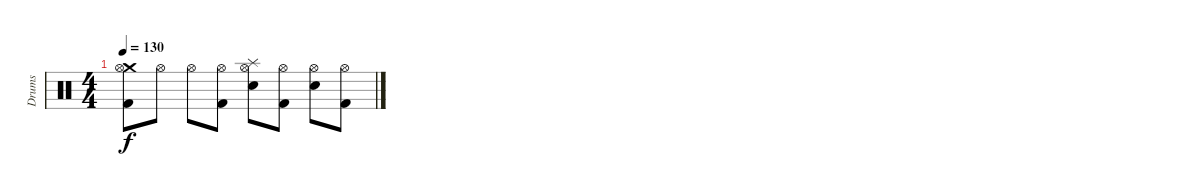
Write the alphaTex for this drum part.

\track ("Drums" "Drums") {instrument percussion}
\staff {score}
\articulation defaults
\ts (4 4)
\tempo 130
\clef neutral
\ks c
("Crash medium (hit)" "Kick (hit) 2" "Hi-Hat (open)").8{dy f} "Hi-Hat (open)".8 "Hi-Hat (open)".8 ("Kick (hit) 2" "Hi-Hat (open)").8 ("Splash (hit)" "Snare (hit) 2" "Hi-Hat (open)").8 ("Kick (hit) 2" "Hi-Hat (open)").8 ("Snare (hit) 2" "Hi-Hat (open)").8 ("Kick (hit) 2" "Hi-Hat (open)").8
